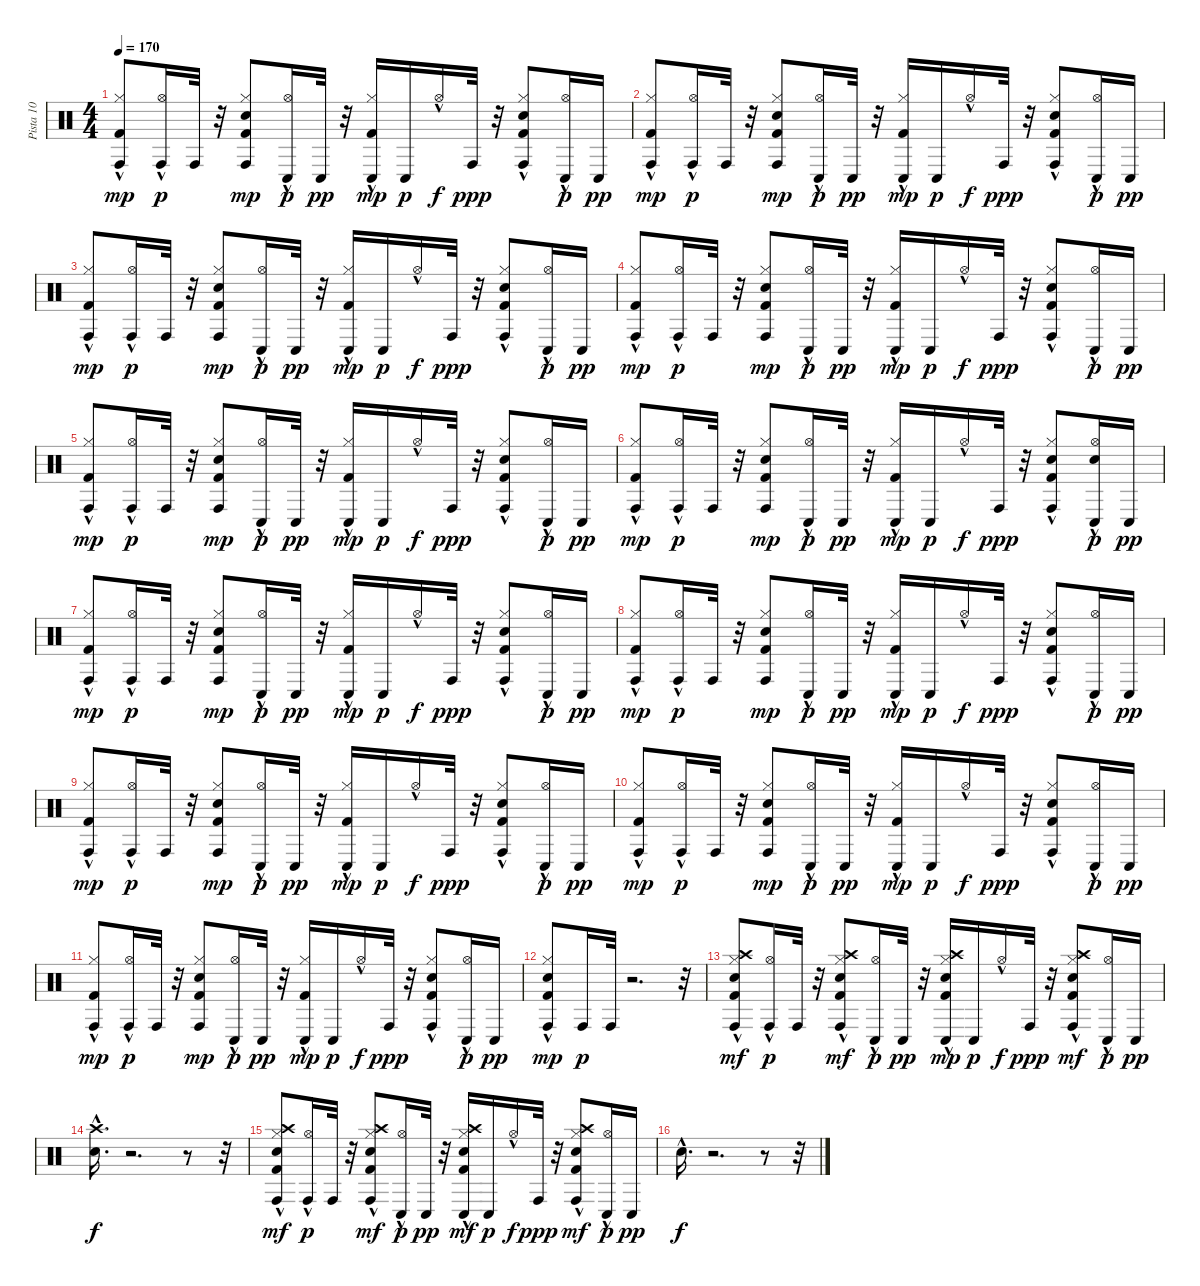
\track ("Pista 10" "Pista 10") {instrument percussion}
\staff {score}
\articulation defaults
\ts (4 4)
\tempo 170
\clef neutral
\ks c
("Kick (hit) 2" "Hi-Hat (closed)"{hac} "Conga high (hit)").8{dy mp} ("Hi-Hat (open)"{hac} "Conga high (hit)").16{dy p} "Conga high (hit)".32 r.32 ("Kick (hit) 2" "Electric Snare (hit)" "Hi-Hat (closed)" "Conga high (hit)").8{dy mp} ("Hi-Hat (open)"{hac} "Conga low (hit)").16{dy p} "Conga low (hit)".32{dy pp} r.32 ("Kick (hit) 2" "Hi-Hat (closed)"{hac} "Conga low (hit)").16{dy mp} "Conga low (hit)".16{dy p} "Hi-Hat (open)"{hac}.16{dy f} "Conga high (hit)".32{dy ppp} r.32 ("Kick (hit) 2" "Electric Snare (hit)" "Hi-Hat (closed)"{hac} "Conga high (hit)").8 ("Hi-Hat (open)"{hac} "Conga low (hit)").16{dy p} "Conga low (hit)".16{dy pp} |
("Kick (hit) 2" "Hi-Hat (closed)"{hac} "Conga high (hit)").8{dy mp} ("Hi-Hat (open)"{hac} "Conga high (hit)").16{dy p} "Conga high (hit)".32 r.32 ("Kick (hit) 2" "Electric Snare (hit)" "Hi-Hat (closed)" "Conga high (hit)").8{dy mp} ("Hi-Hat (open)"{hac} "Conga low (hit)").16{dy p} "Conga low (hit)".32{dy pp} r.32 ("Kick (hit) 2" "Hi-Hat (closed)"{hac} "Conga low (hit)").16{dy mp} "Conga low (hit)".16{dy p} "Hi-Hat (open)"{hac}.16{dy f} "Conga high (hit)".32{dy ppp} r.32 ("Kick (hit) 2" "Electric Snare (hit)" "Hi-Hat (closed)"{hac} "Conga high (hit)").8 ("Hi-Hat (open)"{hac} "Conga low (hit)").16{dy p} "Conga low (hit)".16{dy pp} |
("Kick (hit) 2" "Hi-Hat (closed)"{hac} "Conga high (hit)").8{dy mp} ("Hi-Hat (open)"{hac} "Conga high (hit)").16{dy p} "Conga high (hit)".32 r.32 ("Kick (hit) 2" "Electric Snare (hit)" "Hi-Hat (closed)" "Conga high (hit)").8{dy mp} ("Hi-Hat (open)"{hac} "Conga low (hit)").16{dy p} "Conga low (hit)".32{dy pp} r.32 ("Kick (hit) 2" "Hi-Hat (closed)"{hac} "Conga low (hit)").16{dy mp} "Conga low (hit)".16{dy p} "Hi-Hat (open)"{hac}.16{dy f} "Conga high (hit)".32{dy ppp} r.32 ("Kick (hit) 2" "Electric Snare (hit)" "Hi-Hat (closed)"{hac} "Conga high (hit)").8 ("Hi-Hat (open)"{hac} "Conga low (hit)").16{dy p} "Conga low (hit)".16{dy pp} |
("Kick (hit) 2" "Hi-Hat (closed)"{hac} "Conga high (hit)").8{dy mp} ("Hi-Hat (open)"{hac} "Conga high (hit)").16{dy p} "Conga high (hit)".32 r.32 ("Kick (hit) 2" "Electric Snare (hit)" "Hi-Hat (closed)" "Conga high (hit)").8{dy mp} ("Hi-Hat (open)"{hac} "Conga low (hit)").16{dy p} "Conga low (hit)".32{dy pp} r.32 ("Kick (hit) 2" "Hi-Hat (closed)"{hac} "Conga low (hit)").16{dy mp} "Conga low (hit)".16{dy p} "Hi-Hat (open)"{hac}.16{dy f} "Conga high (hit)".32{dy ppp} r.32 ("Kick (hit) 2" "Electric Snare (hit)" "Hi-Hat (closed)"{hac} "Conga high (hit)").8 ("Hi-Hat (open)"{hac} "Conga low (hit)").16{dy p} "Conga low (hit)".16{dy pp} |
("Kick (hit) 2" "Hi-Hat (closed)"{hac} "Conga high (hit)").8{dy mp} ("Hi-Hat (open)"{hac} "Conga high (hit)").16{dy p} "Conga high (hit)".32 r.32 ("Kick (hit) 2" "Electric Snare (hit)" "Hi-Hat (closed)" "Conga high (hit)").8{dy mp} ("Hi-Hat (open)"{hac} "Conga low (hit)").16{dy p} "Conga low (hit)".32{dy pp} r.32 ("Kick (hit) 2" "Hi-Hat (closed)"{hac} "Conga low (hit)").16{dy mp} "Conga low (hit)".16{dy p} "Hi-Hat (open)"{hac}.16{dy f} "Conga high (hit)".32{dy ppp} r.32 ("Kick (hit) 2" "Electric Snare (hit)" "Hi-Hat (closed)"{hac} "Conga high (hit)").8 ("Hi-Hat (open)"{hac} "Conga low (hit)").16{dy p} "Conga low (hit)".16{dy pp} |
("Kick (hit) 2" "Hi-Hat (closed)"{hac} "Conga high (hit)").8{dy mp} ("Hi-Hat (open)"{hac} "Conga high (hit)").16{dy p} "Conga high (hit)".32 r.32 ("Kick (hit) 2" "Electric Snare (hit)" "Hi-Hat (closed)" "Conga high (hit)").8{dy mp} ("Hi-Hat (open)"{hac} "Conga low (hit)").16{dy p} "Conga low (hit)".32{dy pp} r.32 ("Kick (hit) 2" "Hi-Hat (closed)"{hac} "Conga low (hit)").16{dy mp} "Conga low (hit)".16{dy p} "Hi-Hat (open)"{hac}.16{dy f} "Conga high (hit)".32{dy ppp} r.32 ("Kick (hit) 2" "Electric Snare (hit)" "Hi-Hat (closed)"{hac} "Conga high (hit)").8 ("Hi-Hat (open)"{hac} "Snare (hit) 2" "Conga low (hit)").16{dy p} "Conga low (hit)".16{dy pp} |
("Kick (hit) 2" "Hi-Hat (closed)"{hac} "Conga high (hit)").8{dy mp} ("Hi-Hat (open)"{hac} "Conga high (hit)").16{dy p} "Conga high (hit)".32 r.32 ("Kick (hit) 2" "Electric Snare (hit)" "Hi-Hat (closed)" "Conga high (hit)").8{dy mp} ("Hi-Hat (open)"{hac} "Conga low (hit)").16{dy p} "Conga low (hit)".32{dy pp} r.32 ("Kick (hit) 2" "Hi-Hat (closed)"{hac} "Conga low (hit)").16{dy mp} "Conga low (hit)".16{dy p} "Hi-Hat (open)"{hac}.16{dy f} "Conga high (hit)".32{dy ppp} r.32 ("Kick (hit) 2" "Electric Snare (hit)" "Hi-Hat (closed)"{hac} "Conga high (hit)").8 ("Hi-Hat (open)"{hac} "Conga low (hit)").16{dy p} "Conga low (hit)".16{dy pp} |
("Kick (hit) 2" "Hi-Hat (closed)"{hac} "Conga high (hit)").8{dy mp} ("Hi-Hat (open)"{hac} "Conga high (hit)").16{dy p} "Conga high (hit)".32 r.32 ("Kick (hit) 2" "Electric Snare (hit)" "Hi-Hat (closed)" "Conga high (hit)").8{dy mp} ("Hi-Hat (open)"{hac} "Conga low (hit)").16{dy p} "Conga low (hit)".32{dy pp} r.32 ("Kick (hit) 2" "Hi-Hat (closed)"{hac} "Conga low (hit)").16{dy mp} "Conga low (hit)".16{dy p} "Hi-Hat (open)"{hac}.16{dy f} "Conga high (hit)".32{dy ppp} r.32 ("Kick (hit) 2" "Electric Snare (hit)" "Hi-Hat (closed)"{hac} "Conga high (hit)").8 ("Hi-Hat (open)"{hac} "Conga low (hit)").16{dy p} "Conga low (hit)".16{dy pp} |
("Kick (hit) 2" "Hi-Hat (closed)"{hac} "Conga high (hit)").8{dy mp} ("Hi-Hat (open)"{hac} "Conga high (hit)").16{dy p} "Conga high (hit)".32 r.32 ("Kick (hit) 2" "Electric Snare (hit)" "Hi-Hat (closed)" "Conga high (hit)").8{dy mp} ("Hi-Hat (open)"{hac} "Conga low (hit)").16{dy p} "Conga low (hit)".32{dy pp} r.32 ("Kick (hit) 2" "Hi-Hat (closed)"{hac} "Conga low (hit)").16{dy mp} "Conga low (hit)".16{dy p} "Hi-Hat (open)"{hac}.16{dy f} "Conga high (hit)".32{dy ppp} r.32 ("Kick (hit) 2" "Electric Snare (hit)" "Hi-Hat (closed)"{hac} "Conga high (hit)").8 ("Hi-Hat (open)"{hac} "Conga low (hit)").16{dy p} "Conga low (hit)".16{dy pp} |
("Kick (hit) 2" "Hi-Hat (closed)"{hac} "Conga high (hit)").8{dy mp} ("Hi-Hat (open)"{hac} "Conga high (hit)").16{dy p} "Conga high (hit)".32 r.32 ("Kick (hit) 2" "Electric Snare (hit)" "Hi-Hat (closed)" "Conga high (hit)").8{dy mp} ("Hi-Hat (open)"{hac} "Conga low (hit)").16{dy p} "Conga low (hit)".32{dy pp} r.32 ("Kick (hit) 2" "Hi-Hat (closed)"{hac} "Conga low (hit)").16{dy mp} "Conga low (hit)".16{dy p} "Hi-Hat (open)"{hac}.16{dy f} "Conga high (hit)".32{dy ppp} r.32 ("Kick (hit) 2" "Electric Snare (hit)" "Hi-Hat (closed)"{hac} "Conga high (hit)").8 ("Hi-Hat (open)"{hac} "Conga low (hit)").16{dy p} "Conga low (hit)".16{dy pp} |
("Kick (hit) 2" "Hi-Hat (closed)"{hac} "Conga high (hit)").8{dy mp} ("Hi-Hat (open)"{hac} "Conga high (hit)").16{dy p} "Conga high (hit)".32 r.32 ("Kick (hit) 2" "Electric Snare (hit)" "Hi-Hat (closed)" "Conga high (hit)").8{dy mp} ("Hi-Hat (open)"{hac} "Conga low (hit)").16{dy p} "Conga low (hit)".32{dy pp} r.32 ("Kick (hit) 2" "Hi-Hat (closed)"{hac} "Conga low (hit)").16{dy mp} "Conga low (hit)".16{dy p} "Hi-Hat (open)"{hac}.16{dy f} "Conga high (hit)".32{dy ppp} r.32 ("Kick (hit) 2" "Electric Snare (hit)" "Hi-Hat (closed)"{hac} "Conga high (hit)").8 ("Hi-Hat (open)"{hac} "Conga low (hit)").16{dy p} "Conga low (hit)".16{dy pp} |
("Kick (hit) 2" "Hi-Hat (closed)"{hac} "Conga high (hit)" "Snare (hit) 2").8{dy mp} "Conga high (hit)".16{dy p} "Conga high (hit)".32 r.2{d} r.32 |
("Kick (hit) 2" "Hi-Hat (closed)"{hac} "Conga high (hit)" "Snare (hit) 2" "Crash high (hit)").8{dy mf} ("Hi-Hat (open)"{hac} "Conga high (hit)").16{dy p} "Conga high (hit)".32 r.32 ("Kick (hit) 2" "Hi-Hat (closed)" "Conga high (hit)" "Snare (hit) 2" "Crash high (hit)"{hac}).8{dy mf} ("Hi-Hat (open)"{hac} "Conga low (hit)").16{dy p} "Conga low (hit)".32{dy pp} r.32 ("Kick (hit) 2" "Hi-Hat (closed)"{hac} "Conga low (hit)" "Snare (hit) 2" "Crash high (hit)"{hac}).16{dy mp} "Conga low (hit)".16{dy p} "Hi-Hat (open)"{hac}.16{dy f} "Conga high (hit)".32{dy ppp} r.32 ("Kick (hit) 2" "Hi-Hat (closed)"{hac} "Conga high (hit)" "Snare (hit) 2" "Crash high (hit)").8{dy mf} ("Hi-Hat (open)"{hac} "Conga low (hit)").16{dy p} "Conga low (hit)".16{dy pp} |
("Snare (hit) 2"{hac} "Crash high (hit)").16{d dy f} r.2{d} r.8 r.32 |
("Kick (hit) 2" "Hi-Hat (closed)"{hac} "Conga high (hit)" "Snare (hit) 2" "Crash high (hit)").8{dy mf} ("Hi-Hat (open)"{hac} "Conga high (hit)").16{dy p} "Conga high (hit)".32 r.32 ("Kick (hit) 2" "Hi-Hat (closed)" "Conga high (hit)" "Snare (hit) 2"{hac} "Crash high (hit)"{hac}).8{dy mf} ("Hi-Hat (open)"{hac} "Conga low (hit)").16{dy p} "Conga low (hit)".32{dy pp} r.32 ("Kick (hit) 2" "Hi-Hat (closed)"{hac} "Conga low (hit)" "Snare (hit) 2" "Crash high (hit)").16{dy mf} "Conga low (hit)".16{dy p} "Hi-Hat (open)"{hac}.16{dy f} "Conga high (hit)".32{dy ppp} r.32 ("Kick (hit) 2" "Hi-Hat (closed)"{hac} "Conga high (hit)" "Crash high (hit)" "Snare (hit) 2").8{dy mf} ("Hi-Hat (open)"{hac} "Conga low (hit)").16{dy p} "Conga low (hit)".16{dy pp} |
"Snare (hit) 2"{hac}.16{d dy f} r.2{d} r.8 r.32
